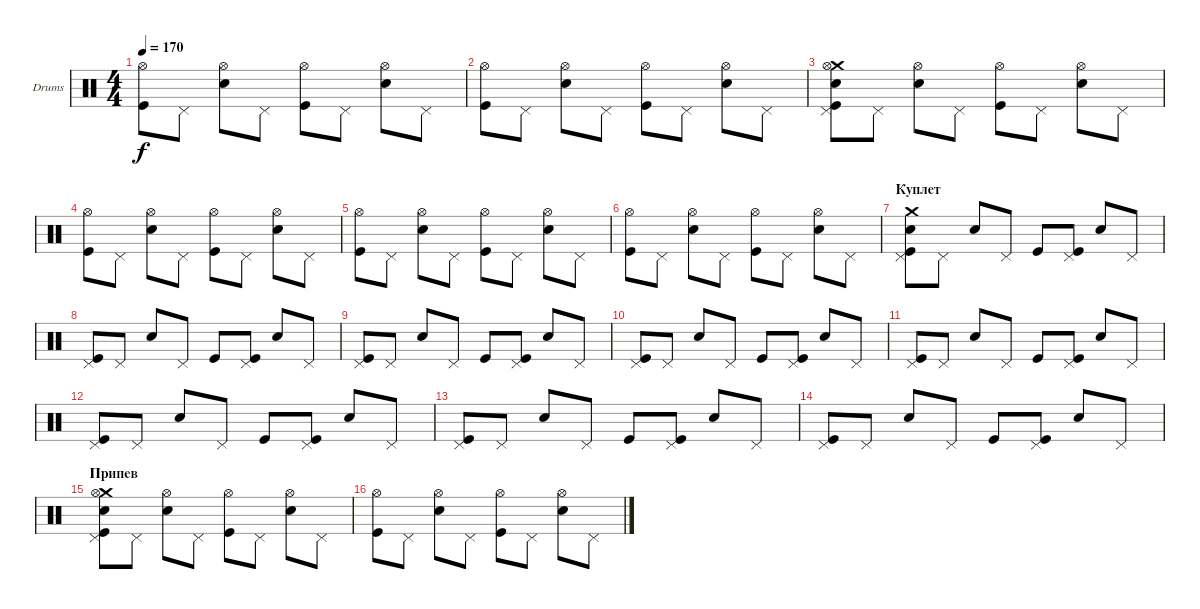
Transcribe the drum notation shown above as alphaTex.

\defaultSystemsLayout 4
\bracketExtendMode groupsimilarinstruments
\firstSystemTrackNameOrientation horizontal
\otherSystemsTrackNameOrientation horizontal
\track ("Е. Кулаков" "Drums") {instrument percussion}
\staff {score}
\articulation defaults
\ts (4 4)
\tempo 170
\clef neutral
\ks c
("Kick (hit)" "Hi-Hat (open)").8{dy f} "Pedal Hi-Hat (hit)".8 ("Snare (hit) 2" "Hi-Hat (open)").8 "Pedal Hi-Hat (hit)".8 ("Kick (hit)" "Hi-Hat (open)").8 "Pedal Hi-Hat (hit)".8 ("Snare (hit) 2" "Hi-Hat (open)").8 "Pedal Hi-Hat (hit)".8 |
("Kick (hit)" "Hi-Hat (open)").8 "Pedal Hi-Hat (hit)".8 ("Snare (hit) 2" "Hi-Hat (open)").8 "Pedal Hi-Hat (hit)".8 ("Kick (hit)" "Hi-Hat (open)").8 "Pedal Hi-Hat (hit)".8 ("Snare (hit) 2" "Hi-Hat (open)").8 "Pedal Hi-Hat (hit)".8 |
("Kick (hit)" "Snare (hit) 2" "Crash medium (hit)" "Pedal Hi-Hat (hit)" "Hi-Hat (open)").8 "Pedal Hi-Hat (hit)".8 ("Snare (hit) 2" "Hi-Hat (open)").8 "Pedal Hi-Hat (hit)".8 ("Kick (hit)" "Hi-Hat (open)").8 "Pedal Hi-Hat (hit)".8 ("Snare (hit) 2" "Hi-Hat (open)").8 "Pedal Hi-Hat (hit)".8 |
("Kick (hit)" "Hi-Hat (open)").8 "Pedal Hi-Hat (hit)".8 ("Snare (hit) 2" "Hi-Hat (open)").8 "Pedal Hi-Hat (hit)".8 ("Kick (hit)" "Hi-Hat (open)").8 "Pedal Hi-Hat (hit)".8 ("Snare (hit) 2" "Hi-Hat (open)").8 "Pedal Hi-Hat (hit)".8 |
("Kick (hit)" "Hi-Hat (open)").8 "Pedal Hi-Hat (hit)".8 ("Snare (hit) 2" "Hi-Hat (open)").8 "Pedal Hi-Hat (hit)".8 ("Kick (hit)" "Hi-Hat (open)").8 "Pedal Hi-Hat (hit)".8 ("Snare (hit) 2" "Hi-Hat (open)").8 "Pedal Hi-Hat (hit)".8 |
("Kick (hit)" "Hi-Hat (open)").8 "Pedal Hi-Hat (hit)".8 ("Snare (hit) 2" "Hi-Hat (open)").8 "Pedal Hi-Hat (hit)".8 ("Kick (hit)" "Hi-Hat (open)").8 "Pedal Hi-Hat (hit)".8 ("Snare (hit) 2" "Hi-Hat (open)").8 "Pedal Hi-Hat (hit)".8 |
\section ("" "Куплет")
("Kick (hit)" "Snare (hit) 2" "Crash medium (hit)" "Pedal Hi-Hat (hit)").8 "Pedal Hi-Hat (hit)".8 "Snare (hit) 2".8 "Pedal Hi-Hat (hit)".8 "Kick (hit)".8 ("Kick (hit)" "Pedal Hi-Hat (hit)").8 "Snare (hit) 2".8 "Pedal Hi-Hat (hit)".8 |
("Kick (hit)" "Pedal Hi-Hat (hit)").8 "Pedal Hi-Hat (hit)".8 "Snare (hit) 2".8 "Pedal Hi-Hat (hit)".8 "Kick (hit)".8 ("Kick (hit)" "Pedal Hi-Hat (hit)").8 "Snare (hit) 2".8 "Pedal Hi-Hat (hit)".8 |
("Kick (hit)" "Pedal Hi-Hat (hit)").8 "Pedal Hi-Hat (hit)".8 "Snare (hit) 2".8 "Pedal Hi-Hat (hit)".8 "Kick (hit)".8 ("Kick (hit)" "Pedal Hi-Hat (hit)").8 "Snare (hit) 2".8 "Pedal Hi-Hat (hit)".8 |
("Kick (hit)" "Pedal Hi-Hat (hit)").8 "Pedal Hi-Hat (hit)".8 "Snare (hit) 2".8 "Pedal Hi-Hat (hit)".8 "Kick (hit)".8 ("Kick (hit)" "Pedal Hi-Hat (hit)").8 "Snare (hit) 2".8 "Pedal Hi-Hat (hit)".8 |
("Kick (hit)" "Pedal Hi-Hat (hit)").8 "Pedal Hi-Hat (hit)".8 "Snare (hit) 2".8 "Pedal Hi-Hat (hit)".8 "Kick (hit)".8 ("Kick (hit)" "Pedal Hi-Hat (hit)").8 "Snare (hit) 2".8 "Pedal Hi-Hat (hit)".8 |
("Kick (hit)" "Pedal Hi-Hat (hit)").8 "Pedal Hi-Hat (hit)".8 "Snare (hit) 2".8 "Pedal Hi-Hat (hit)".8 "Kick (hit)".8 ("Kick (hit)" "Pedal Hi-Hat (hit)").8 "Snare (hit) 2".8 "Pedal Hi-Hat (hit)".8 |
("Kick (hit)" "Pedal Hi-Hat (hit)").8 "Pedal Hi-Hat (hit)".8 "Snare (hit) 2".8 "Pedal Hi-Hat (hit)".8 "Kick (hit)".8 ("Kick (hit)" "Pedal Hi-Hat (hit)").8 "Snare (hit) 2".8 "Pedal Hi-Hat (hit)".8 |
("Kick (hit)" "Pedal Hi-Hat (hit)").8 "Pedal Hi-Hat (hit)".8 "Snare (hit) 2".8 "Pedal Hi-Hat (hit)".8 "Kick (hit)".8 ("Kick (hit)" "Pedal Hi-Hat (hit)").8 "Snare (hit) 2".8 "Pedal Hi-Hat (hit)".8 |
\section ("" "Припев")
("Kick (hit)" "Snare (hit) 2" "Crash medium (hit)" "Pedal Hi-Hat (hit)" "Hi-Hat (open)").8 "Pedal Hi-Hat (hit)".8 ("Snare (hit) 2" "Hi-Hat (open)").8 "Pedal Hi-Hat (hit)".8 ("Kick (hit)" "Hi-Hat (open)").8 "Pedal Hi-Hat (hit)".8 ("Snare (hit) 2" "Hi-Hat (open)").8 "Pedal Hi-Hat (hit)".8 |
("Kick (hit)" "Hi-Hat (open)").8 "Pedal Hi-Hat (hit)".8 ("Snare (hit) 2" "Hi-Hat (open)").8 "Pedal Hi-Hat (hit)".8 ("Kick (hit)" "Hi-Hat (open)").8 "Pedal Hi-Hat (hit)".8 ("Snare (hit) 2" "Hi-Hat (open)").8 "Pedal Hi-Hat (hit)".8
